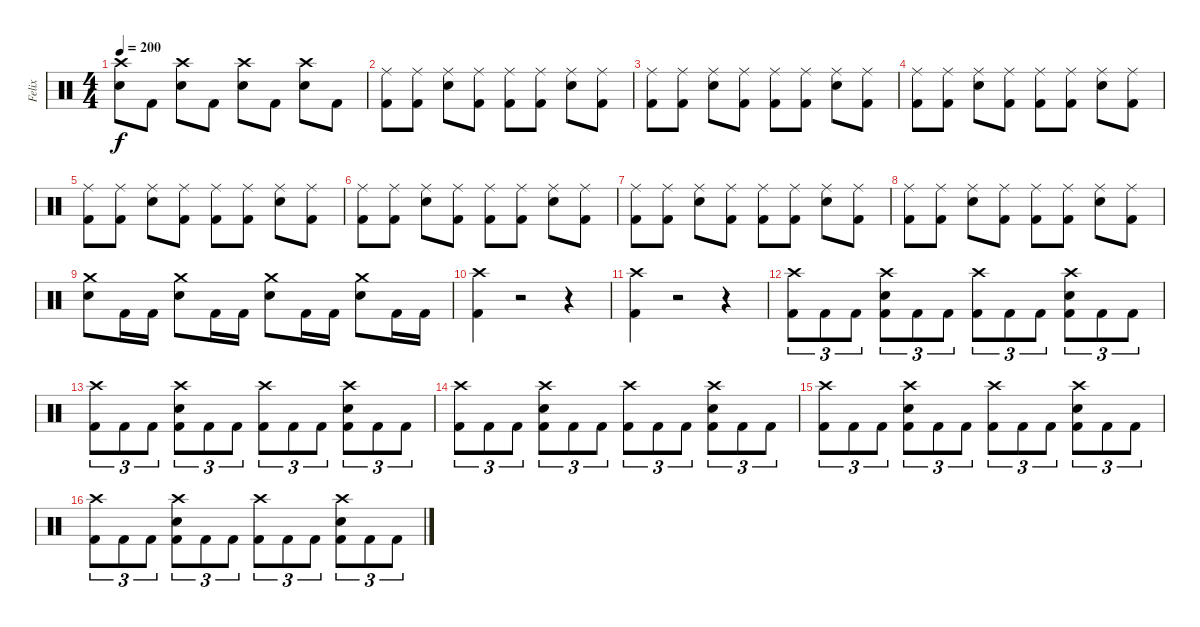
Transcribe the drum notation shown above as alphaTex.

\track ("Felix" "Felix") {instrument percussion}
\staff {score}
\articulation defaults
\ts (4 4)
\tempo 200
\clef neutral
\ks c
("Crash high (hit)" "Electric Snare (hit)").8{dy f} "Kick (hit) 2".8 ("Crash high (hit)" "Electric Snare (hit)").8 "Kick (hit) 2".8 ("Crash high (hit)" "Electric Snare (hit)").8 "Kick (hit) 2".8 ("Crash high (hit)" "Electric Snare (hit)").8 "Kick (hit) 2".8 |
("Ride (middle)" "Kick (hit) 2").8 ("Ride (middle)" "Kick (hit) 2").8 ("Ride (middle)" "Electric Snare (hit)").8 ("Ride (middle)" "Kick (hit) 2").8 ("Ride (middle)" "Kick (hit) 2").8 ("Ride (middle)" "Kick (hit) 2").8 ("Ride (middle)" "Electric Snare (hit)").8 ("Ride (middle)" "Kick (hit) 2").8 |
("Ride (middle)" "Kick (hit) 2").8 ("Ride (middle)" "Kick (hit) 2").8 ("Ride (middle)" "Electric Snare (hit)").8 ("Ride (middle)" "Kick (hit) 2").8 ("Ride (middle)" "Kick (hit) 2").8 ("Ride (middle)" "Kick (hit) 2").8 ("Ride (middle)" "Electric Snare (hit)").8 ("Ride (middle)" "Kick (hit) 2").8 |
("Ride (middle)" "Kick (hit) 2").8 ("Ride (middle)" "Kick (hit) 2").8 ("Ride (middle)" "Electric Snare (hit)").8 ("Ride (middle)" "Kick (hit) 2").8 ("Ride (middle)" "Kick (hit) 2").8 ("Ride (middle)" "Kick (hit) 2").8 ("Ride (middle)" "Electric Snare (hit)").8 ("Ride (middle)" "Kick (hit) 2").8 |
("Ride (middle)" "Kick (hit) 2").8 ("Ride (middle)" "Kick (hit) 2").8 ("Ride (middle)" "Electric Snare (hit)").8 ("Ride (middle)" "Kick (hit) 2").8 ("Ride (middle)" "Kick (hit) 2").8 ("Ride (middle)" "Kick (hit) 2").8 ("Ride (middle)" "Electric Snare (hit)").8 ("Ride (middle)" "Kick (hit) 2").8 |
("Ride (middle)" "Kick (hit) 2").8 ("Ride (middle)" "Kick (hit) 2").8 ("Ride (middle)" "Electric Snare (hit)").8 ("Ride (middle)" "Kick (hit) 2").8 ("Ride (middle)" "Kick (hit) 2").8 ("Ride (middle)" "Kick (hit) 2").8 ("Ride (middle)" "Electric Snare (hit)").8 ("Ride (middle)" "Kick (hit) 2").8 |
("Ride (middle)" "Kick (hit) 2").8 ("Ride (middle)" "Kick (hit) 2").8 ("Ride (middle)" "Electric Snare (hit)").8 ("Ride (middle)" "Kick (hit) 2").8 ("Ride (middle)" "Kick (hit) 2").8 ("Ride (middle)" "Kick (hit) 2").8 ("Ride (middle)" "Electric Snare (hit)").8 ("Ride (middle)" "Kick (hit) 2").8 |
("Ride (middle)" "Kick (hit) 2").8 ("Ride (middle)" "Kick (hit) 2").8 ("Ride (middle)" "Electric Snare (hit)").8 ("Ride (middle)" "Kick (hit) 2").8 ("Ride (middle)" "Kick (hit) 2").8 ("Ride (middle)" "Kick (hit) 2").8 ("Ride (middle)" "Electric Snare (hit)").8 ("Ride (middle)" "Kick (hit) 2").8 |
("Crash medium (hit)" "Electric Snare (hit)").8 "Kick (hit) 2".16 "Kick (hit) 2".16 ("Crash medium (hit)" "Electric Snare (hit)").8 "Kick (hit) 2".16 "Kick (hit) 2".16 ("Crash medium (hit)" "Electric Snare (hit)").8 "Kick (hit) 2".16 "Kick (hit) 2".16 ("Crash medium (hit)" "Electric Snare (hit)").8 "Kick (hit) 2".16 "Kick (hit) 2".16 |
("Crash high (hit)" "Kick (hit) 2").4 r.2 r.4 |
("Crash high (hit)" "Kick (hit) 2").4 r.2 r.4 |
("Crash high (hit)" "Kick (hit) 2").8{tu (3 2)} "Kick (hit) 2".8{tu (3 2)} "Kick (hit) 2".8{tu (3 2)} ("Crash high (hit)" "Electric Snare (hit)" "Kick (hit) 2").8{tu (3 2)} "Kick (hit) 2".8{tu (3 2)} "Kick (hit) 2".8{tu (3 2)} ("Crash high (hit)" "Kick (hit) 2").8{tu (3 2)} "Kick (hit) 2".8{tu (3 2)} "Kick (hit) 2".8{tu (3 2)} ("Crash high (hit)" "Electric Snare (hit)" "Kick (hit) 2").8{tu (3 2)} "Kick (hit) 2".8{tu (3 2)} "Kick (hit) 2".8{tu (3 2)} |
("Crash high (hit)" "Kick (hit) 2").8{tu (3 2)} "Kick (hit) 2".8{tu (3 2)} "Kick (hit) 2".8{tu (3 2)} ("Crash high (hit)" "Electric Snare (hit)" "Kick (hit) 2").8{tu (3 2)} "Kick (hit) 2".8{tu (3 2)} "Kick (hit) 2".8{tu (3 2)} ("Crash high (hit)" "Kick (hit) 2").8{tu (3 2)} "Kick (hit) 2".8{tu (3 2)} "Kick (hit) 2".8{tu (3 2)} ("Crash high (hit)" "Electric Snare (hit)" "Kick (hit) 2").8{tu (3 2)} "Kick (hit) 2".8{tu (3 2)} "Kick (hit) 2".8{tu (3 2)} |
("Crash high (hit)" "Kick (hit) 2").8{tu (3 2)} "Kick (hit) 2".8{tu (3 2)} "Kick (hit) 2".8{tu (3 2)} ("Crash high (hit)" "Electric Snare (hit)" "Kick (hit) 2").8{tu (3 2)} "Kick (hit) 2".8{tu (3 2)} "Kick (hit) 2".8{tu (3 2)} ("Crash high (hit)" "Kick (hit) 2").8{tu (3 2)} "Kick (hit) 2".8{tu (3 2)} "Kick (hit) 2".8{tu (3 2)} ("Crash high (hit)" "Electric Snare (hit)" "Kick (hit) 2").8{tu (3 2)} "Kick (hit) 2".8{tu (3 2)} "Kick (hit) 2".8{tu (3 2)} |
("Crash high (hit)" "Kick (hit) 2").8{tu (3 2)} "Kick (hit) 2".8{tu (3 2)} "Kick (hit) 2".8{tu (3 2)} ("Crash high (hit)" "Electric Snare (hit)" "Kick (hit) 2").8{tu (3 2)} "Kick (hit) 2".8{tu (3 2)} "Kick (hit) 2".8{tu (3 2)} ("Crash high (hit)" "Kick (hit) 2").8{tu (3 2)} "Kick (hit) 2".8{tu (3 2)} "Kick (hit) 2".8{tu (3 2)} ("Crash high (hit)" "Electric Snare (hit)" "Kick (hit) 2").8{tu (3 2)} "Kick (hit) 2".8{tu (3 2)} "Kick (hit) 2".8{tu (3 2)} |
("Crash high (hit)" "Kick (hit) 2").8{tu (3 2)} "Kick (hit) 2".8{tu (3 2)} "Kick (hit) 2".8{tu (3 2)} ("Crash high (hit)" "Electric Snare (hit)" "Kick (hit) 2").8{tu (3 2)} "Kick (hit) 2".8{tu (3 2)} "Kick (hit) 2".8{tu (3 2)} ("Crash high (hit)" "Kick (hit) 2").8{tu (3 2)} "Kick (hit) 2".8{tu (3 2)} "Kick (hit) 2".8{tu (3 2)} ("Crash high (hit)" "Electric Snare (hit)" "Kick (hit) 2").8{tu (3 2)} "Kick (hit) 2".8{tu (3 2)} "Kick (hit) 2".8{tu (3 2)}
